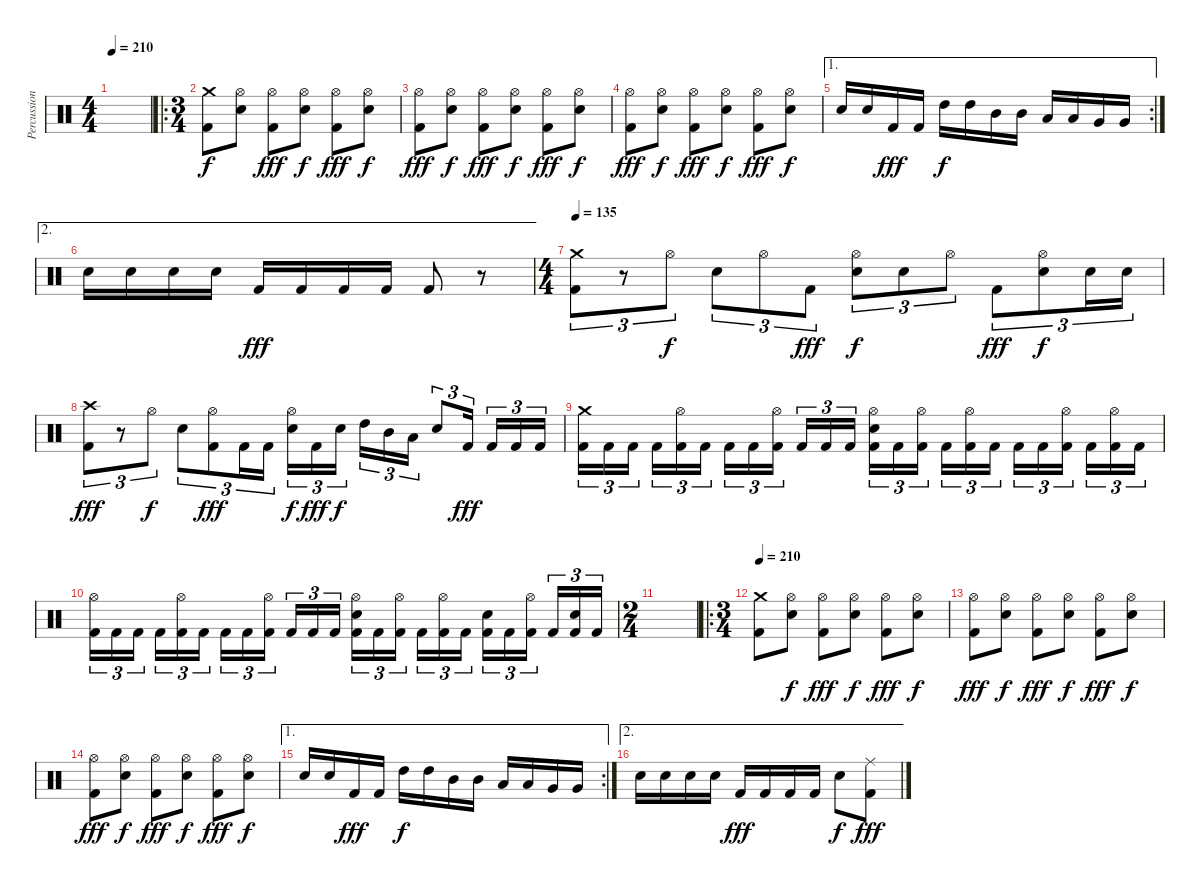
\track ("Percussions" "Percussion") {instrument percussion}
\staff {score}
\articulation defaults
\ts (4 4)
\tempo 210
\clef neutral
\ks c
|
\ro
\ts (3 4)
("Crash medium (hit)" "Kick (hit) 2").8 ("Hi-Hat (open)" "Electric Snare (hit)").8{dy f} ("Hi-Hat (open)" "Kick (hit) 2").8{dy fff} ("Hi-Hat (open)" "Electric Snare (hit)").8{dy f} ("Hi-Hat (open)" "Kick (hit) 2").8{dy fff} ("Hi-Hat (open)" "Electric Snare (hit)").8{dy f} |
("Hi-Hat (open)" "Kick (hit) 2").8{dy fff} ("Hi-Hat (open)" "Electric Snare (hit)").8{dy f} ("Hi-Hat (open)" "Kick (hit) 2").8{dy fff} ("Hi-Hat (open)" "Electric Snare (hit)").8{dy f} ("Hi-Hat (open)" "Kick (hit) 2").8{dy fff} ("Hi-Hat (open)" "Electric Snare (hit)").8{dy f} |
("Hi-Hat (open)" "Kick (hit) 2").8{dy fff} ("Hi-Hat (open)" "Electric Snare (hit)").8{dy f} ("Hi-Hat (open)" "Kick (hit) 2").8{dy fff} ("Hi-Hat (open)" "Electric Snare (hit)").8{dy f} ("Hi-Hat (open)" "Kick (hit) 2").8{dy fff} ("Hi-Hat (open)" "Electric Snare (hit)").8{dy f} |
\ae 1
\rc 2 "Electric Snare (hit)".16 "Electric Snare (hit)".16 "Kick (hit) 2".16{dy fff} "Kick (hit) 2".16 "High Tom (hit)".16{dy f} "High Tom (hit)".16 "Mid Tom (hit)".16 "Mid Tom (hit)".16 "Low Tom (hit)".16 "Low Tom (hit)".16 "Very Low Tom (hit)".16 "Very Low Tom (hit)".16
|
\ae 2 "Electric Snare (hit)".16 "Electric Snare (hit)".16 "Electric Snare (hit)".16 "Electric Snare (hit)".16 "Kick (hit) 2".16{dy fff} "Kick (hit) 2".16 "Kick (hit) 2".16 "Kick (hit) 2".16 "Kick (hit) 2".8
r.8 |
\ts (4 4)
\tempo 135
("Crash medium (hit)" "Kick (hit) 2").8{tu (3 2)} r.8{tu (3 2)} "Hi-Hat (open)".8{tu (3 2) dy f} "Electric Snare (hit)".8{tu (3 2)} "Hi-Hat (open)".8{tu (3 2)} "Kick (hit) 2".8{tu (3 2) dy fff} ("Hi-Hat (open)" "Electric Snare (hit)").8{tu (3 2) dy f} "Electric Snare (hit)".8{tu (3 2)} "Hi-Hat (open)".8{tu (3 2)} "Kick (hit) 2".8{tu (3 2) dy fff} ("Hi-Hat (open)" "Electric Snare (hit)").8{tu (3 2) dy f} "Electric Snare (hit)".16{tu (3 2)} "Electric Snare (hit)".16{tu (3 2)} |
("Crash high (hit)" "Kick (hit) 2").8{tu (3 2) dy fff} r.8{tu (3 2)} "Hi-Hat (open)".8{tu (3 2) dy f} "Electric Snare (hit)".8{tu (3 2)} ("Hi-Hat (open)" "Kick (hit) 2").8{tu (3 2) dy fff} "Kick (hit) 2".16{tu (3 2)} "Kick (hit) 2".16{tu (3 2)} ("Hi-Hat (open)" "Electric Snare (hit)").16{tu (3 2) dy f} "Kick (hit) 2".16{tu (3 2) dy fff} "Electric Snare (hit)".16{tu (3 2) dy f beam splitsecondary} "High Tom (hit)".16{tu (3 2)} "Mid Tom (hit)".16{tu (3 2)} "Low Tom (hit)".16{tu (3 2)} "Electric Snare (hit)".8{tu (3 2)} "Kick (hit) 2".16{tu (3 2) dy fff beam splitsecondary} "Kick (hit) 2".16{tu (3 2)} "Kick (hit) 2".16{tu (3 2)} "Kick (hit) 2".16{tu (3 2)} |
("Crash medium (hit)" "Kick (hit) 2").16{tu (3 2)} "Kick (hit) 2".16{tu (3 2)} "Kick (hit) 2".16{tu (3 2) beam splitsecondary} "Kick (hit) 2".16{tu (3 2)} ("Hi-Hat (open)" "Kick (hit) 2").16{tu (3 2)} "Kick (hit) 2".16{tu (3 2)} "Kick (hit) 2".16{tu (3 2)} "Kick (hit) 2".16{tu (3 2)} ("Hi-Hat (open)" "Kick (hit) 2").16{tu (3 2) beam splitsecondary} "Kick (hit) 2".16{tu (3 2)} "Kick (hit) 2".16{tu (3 2)} "Kick (hit) 2".16{tu (3 2)} ("Hi-Hat (open)" "Electric Snare (hit)" "Kick (hit) 2").16{tu (3 2)} "Kick (hit) 2".16{tu (3 2)} ("Hi-Hat (open)" "Kick (hit) 2").16{tu (3 2) beam splitsecondary} "Kick (hit) 2".16{tu (3 2)} ("Hi-Hat (open)" "Kick (hit) 2").16{tu (3 2)} "Kick (hit) 2".16{tu (3 2)} "Kick (hit) 2".16{tu (3 2)} "Kick (hit) 2".16{tu (3 2)} ("Hi-Hat (open)" "Kick (hit) 2").16{tu (3 2) beam splitsecondary} "Kick (hit) 2".16{tu (3 2)} ("Hi-Hat (open)" "Kick (hit) 2").16{tu (3 2)} "Kick (hit) 2".16{tu (3 2)} |
("Hi-Hat (open)" "Kick (hit) 2").16{tu (3 2)} "Kick (hit) 2".16{tu (3 2)} "Kick (hit) 2".16{tu (3 2) beam splitsecondary} "Kick (hit) 2".16{tu (3 2)} ("Hi-Hat (open)" "Kick (hit) 2").16{tu (3 2)} "Kick (hit) 2".16{tu (3 2)} "Kick (hit) 2".16{tu (3 2)} "Kick (hit) 2".16{tu (3 2)} ("Hi-Hat (open)" "Kick (hit) 2").16{tu (3 2) beam splitsecondary} "Kick (hit) 2".16{tu (3 2)} "Kick (hit) 2".16{tu (3 2)} "Kick (hit) 2".16{tu (3 2)} ("Hi-Hat (open)" "Electric Snare (hit)" "Kick (hit) 2").16{tu (3 2)} "Kick (hit) 2".16{tu (3 2)} ("Hi-Hat (open)" "Kick (hit) 2").16{tu (3 2) beam splitsecondary} "Kick (hit) 2".16{tu (3 2)} ("Hi-Hat (open)" "Kick (hit) 2").16{tu (3 2)} "Kick (hit) 2".16{tu (3 2)} ("Electric Snare (hit)" "Kick (hit) 2").16{tu (3 2)} "Kick (hit) 2".16{tu (3 2)} ("Hi-Hat (open)" "Kick (hit) 2").16{tu (3 2) beam splitsecondary} "Kick (hit) 2".16{tu (3 2)} ("Electric Snare (hit)" "Kick (hit) 2").16{tu (3 2)} "Kick (hit) 2".16{tu (3 2)} |
\ts (2 4)
|
\ro
\ts (3 4)
\tempo 210
("Crash medium (hit)" "Kick (hit) 2").8 ("Hi-Hat (open)" "Electric Snare (hit)").8{dy f} ("Hi-Hat (open)" "Kick (hit) 2").8{dy fff} ("Hi-Hat (open)" "Electric Snare (hit)").8{dy f} ("Hi-Hat (open)" "Kick (hit) 2").8{dy fff} ("Hi-Hat (open)" "Electric Snare (hit)").8{dy f} |
("Hi-Hat (open)" "Kick (hit) 2").8{dy fff} ("Hi-Hat (open)" "Electric Snare (hit)").8{dy f} ("Hi-Hat (open)" "Kick (hit) 2").8{dy fff} ("Hi-Hat (open)" "Electric Snare (hit)").8{dy f} ("Hi-Hat (open)" "Kick (hit) 2").8{dy fff} ("Hi-Hat (open)" "Electric Snare (hit)").8{dy f} |
("Hi-Hat (open)" "Kick (hit) 2").8{dy fff} ("Hi-Hat (open)" "Electric Snare (hit)").8{dy f} ("Hi-Hat (open)" "Kick (hit) 2").8{dy fff} ("Hi-Hat (open)" "Electric Snare (hit)").8{dy f} ("Hi-Hat (open)" "Kick (hit) 2").8{dy fff} ("Hi-Hat (open)" "Electric Snare (hit)").8{dy f} |
\ae 1
\rc 2 "Electric Snare (hit)".16 "Electric Snare (hit)".16 "Kick (hit) 2".16{dy fff} "Kick (hit) 2".16 "High Tom (hit)".16{dy f} "High Tom (hit)".16 "Mid Tom (hit)".16 "Mid Tom (hit)".16 "Low Tom (hit)".16 "Low Tom (hit)".16 "Very Low Tom (hit)".16 "Very Low Tom (hit)".16
|
\ae 2 "Electric Snare (hit)".16 "Electric Snare (hit)".16 "Electric Snare (hit)".16 "Electric Snare (hit)".16 "Kick (hit) 2".16{dy fff} "Kick (hit) 2".16 "Kick (hit) 2".16 "Kick (hit) 2".16 "Electric Snare (hit)".8{dy f}
("Ride (middle)" "Kick (hit) 2").8{dy fff}
